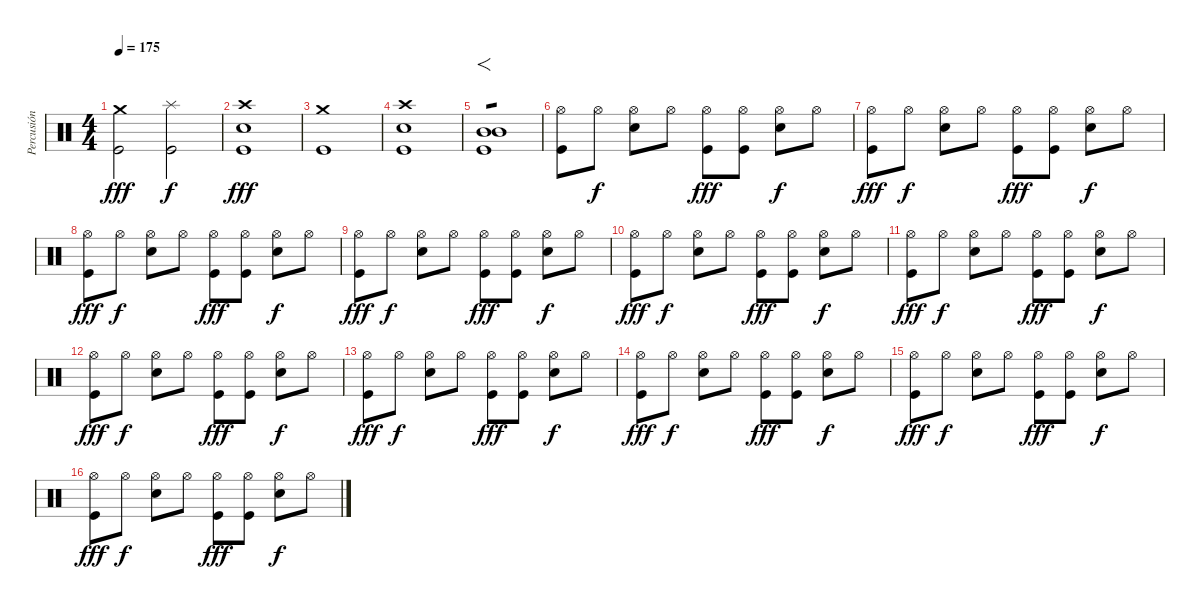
\track ("Percusión" "Percusión") {instrument percussion}
\staff {score}
\articulation defaults
\ts (4 4)
\tempo 175
\clef neutral
\ks c
("Crash medium (hit)" "Kick (hit)").2{dy fff} ("Splash (hit)" "Kick (hit)").2{dy f} |
("Crash high (hit)" "Electric Snare (hit)" "Kick (hit)").1{dy fff} |
("Crash medium (hit)" "Kick (hit)").1 |
("Crash high (hit)" "Electric Snare (hit)" "Kick (hit)").1 |
("Mid Tom (hit)" "Mid Tom (hit)" "Kick (hit)").1{f tp 1} |
("Hi-Hat (open)" "Kick (hit)").8 "Hi-Hat (open)".8{dy f} ("Hi-Hat (open)" "Electric Snare (hit)").8 "Hi-Hat (open)".8 ("Hi-Hat (open)" "Kick (hit)").8{dy fff} ("Hi-Hat (open)" "Kick (hit)").8 ("Hi-Hat (open)" "Electric Snare (hit)").8{dy f} "Hi-Hat (open)".8 |
("Hi-Hat (open)" "Kick (hit)").8{dy fff} "Hi-Hat (open)".8{dy f} ("Hi-Hat (open)" "Electric Snare (hit)").8 "Hi-Hat (open)".8 ("Hi-Hat (open)" "Kick (hit)").8{dy fff} ("Hi-Hat (open)" "Kick (hit)").8 ("Hi-Hat (open)" "Electric Snare (hit)").8{dy f} "Hi-Hat (open)".8 |
("Hi-Hat (open)" "Kick (hit)").8{dy fff} "Hi-Hat (open)".8{dy f} ("Hi-Hat (open)" "Electric Snare (hit)").8 "Hi-Hat (open)".8 ("Hi-Hat (open)" "Kick (hit)").8{dy fff} ("Hi-Hat (open)" "Kick (hit)").8 ("Hi-Hat (open)" "Electric Snare (hit)").8{dy f} "Hi-Hat (open)".8 |
("Hi-Hat (open)" "Kick (hit)").8{dy fff} "Hi-Hat (open)".8{dy f} ("Hi-Hat (open)" "Electric Snare (hit)").8 "Hi-Hat (open)".8 ("Hi-Hat (open)" "Kick (hit)").8{dy fff} ("Hi-Hat (open)" "Kick (hit)").8 ("Hi-Hat (open)" "Electric Snare (hit)").8{dy f} "Hi-Hat (open)".8 |
("Hi-Hat (open)" "Kick (hit)").8{dy fff} "Hi-Hat (open)".8{dy f} ("Hi-Hat (open)" "Electric Snare (hit)").8 "Hi-Hat (open)".8 ("Hi-Hat (open)" "Kick (hit)").8{dy fff} ("Hi-Hat (open)" "Kick (hit)").8 ("Hi-Hat (open)" "Electric Snare (hit)").8{dy f} "Hi-Hat (open)".8 |
("Hi-Hat (open)" "Kick (hit)").8{dy fff} "Hi-Hat (open)".8{dy f} ("Hi-Hat (open)" "Electric Snare (hit)").8 "Hi-Hat (open)".8 ("Hi-Hat (open)" "Kick (hit)").8{dy fff} ("Hi-Hat (open)" "Kick (hit)").8 ("Hi-Hat (open)" "Electric Snare (hit)").8{dy f} "Hi-Hat (open)".8 |
("Hi-Hat (open)" "Kick (hit)").8{dy fff} "Hi-Hat (open)".8{dy f} ("Hi-Hat (open)" "Electric Snare (hit)").8 "Hi-Hat (open)".8 ("Hi-Hat (open)" "Kick (hit)").8{dy fff} ("Hi-Hat (open)" "Kick (hit)").8 ("Hi-Hat (open)" "Electric Snare (hit)").8{dy f} "Hi-Hat (open)".8 |
("Hi-Hat (open)" "Kick (hit)").8{dy fff} "Hi-Hat (open)".8{dy f} ("Hi-Hat (open)" "Electric Snare (hit)").8 "Hi-Hat (open)".8 ("Hi-Hat (open)" "Kick (hit)").8{dy fff} ("Hi-Hat (open)" "Kick (hit)").8 ("Hi-Hat (open)" "Electric Snare (hit)").8{dy f} "Hi-Hat (open)".8 |
("Hi-Hat (open)" "Kick (hit)").8{dy fff} "Hi-Hat (open)".8{dy f} ("Hi-Hat (open)" "Electric Snare (hit)").8 "Hi-Hat (open)".8 ("Hi-Hat (open)" "Kick (hit)").8{dy fff} ("Hi-Hat (open)" "Kick (hit)").8 ("Hi-Hat (open)" "Electric Snare (hit)").8{dy f} "Hi-Hat (open)".8 |
("Hi-Hat (open)" "Kick (hit)").8{dy fff} "Hi-Hat (open)".8{dy f} ("Hi-Hat (open)" "Electric Snare (hit)").8 "Hi-Hat (open)".8 ("Hi-Hat (open)" "Kick (hit)").8{dy fff} ("Hi-Hat (open)" "Kick (hit)").8 ("Hi-Hat (open)" "Electric Snare (hit)").8{dy f} "Hi-Hat (open)".8 |
("Hi-Hat (open)" "Kick (hit)").8{dy fff} "Hi-Hat (open)".8{dy f} ("Hi-Hat (open)" "Electric Snare (hit)").8 "Hi-Hat (open)".8 ("Hi-Hat (open)" "Kick (hit)").8{dy fff} ("Hi-Hat (open)" "Kick (hit)").8 ("Hi-Hat (open)" "Electric Snare (hit)").8{dy f} "Hi-Hat (open)".8
